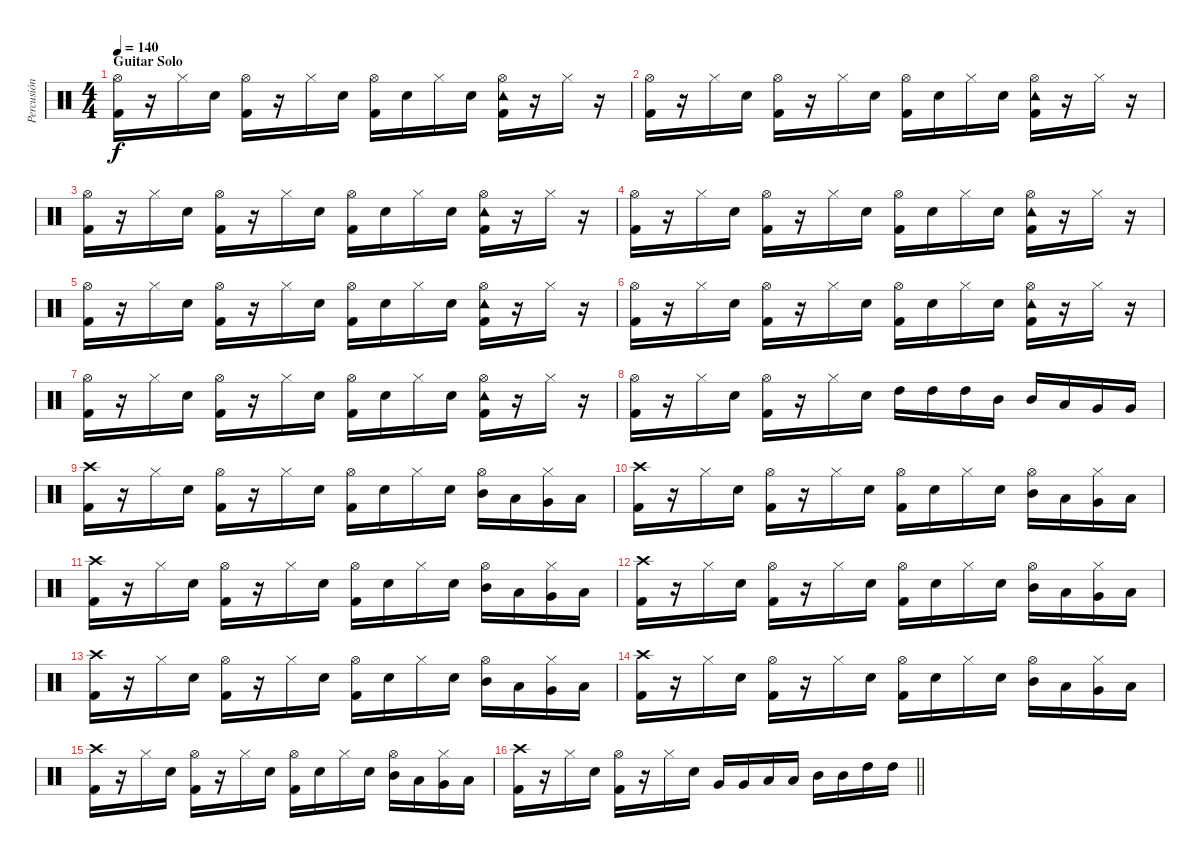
\track ("Percusión" "Percusión") {instrument percussion}
\staff {score}
\articulation defaults
\ts (4 4)
\section ("" "Guitar Solo")
\tempo 140
\clef neutral
\ks c
("Hi-Hat (open)" "Kick (hit) 2").16{dy f} r.16 "Hi-Hat (closed)".16 "Electric Snare (hit)".16 ("Hi-Hat (open)" "Kick (hit) 2").16 r.16 "Hi-Hat (closed)".16 "Electric Snare (hit)".16 ("Hi-Hat (open)" "Kick (hit) 2").16 "Electric Snare (hit)".16 "Hi-Hat (closed)".16 "Electric Snare (hit)".16 ("Hi-Hat (open)" "Tambourine (hit)" "Kick (hit) 2").16 r.16 "Hi-Hat (closed)".16 r.16 |
("Hi-Hat (open)" "Kick (hit) 2").16 r.16 "Hi-Hat (closed)".16 "Electric Snare (hit)".16 ("Hi-Hat (open)" "Kick (hit) 2").16 r.16 "Hi-Hat (closed)".16 "Electric Snare (hit)".16 ("Hi-Hat (open)" "Kick (hit) 2").16 "Electric Snare (hit)".16 "Hi-Hat (closed)".16 "Electric Snare (hit)".16 ("Hi-Hat (open)" "Tambourine (hit)" "Kick (hit) 2").16 r.16 "Hi-Hat (closed)".16 r.16 |
("Hi-Hat (open)" "Kick (hit) 2").16 r.16 "Hi-Hat (closed)".16 "Electric Snare (hit)".16 ("Hi-Hat (open)" "Kick (hit) 2").16 r.16 "Hi-Hat (closed)".16 "Electric Snare (hit)".16 ("Hi-Hat (open)" "Kick (hit) 2").16 "Electric Snare (hit)".16 "Hi-Hat (closed)".16 "Electric Snare (hit)".16 ("Hi-Hat (open)" "Tambourine (hit)" "Kick (hit) 2").16 r.16 "Hi-Hat (closed)".16 r.16 |
("Hi-Hat (open)" "Kick (hit) 2").16 r.16 "Hi-Hat (closed)".16 "Electric Snare (hit)".16 ("Hi-Hat (open)" "Kick (hit) 2").16 r.16 "Hi-Hat (closed)".16 "Electric Snare (hit)".16 ("Hi-Hat (open)" "Kick (hit) 2").16 "Electric Snare (hit)".16 "Hi-Hat (closed)".16 "Electric Snare (hit)".16 ("Hi-Hat (open)" "Tambourine (hit)" "Kick (hit) 2").16 r.16 "Hi-Hat (closed)".16 r.16 |
("Hi-Hat (open)" "Kick (hit) 2").16 r.16 "Hi-Hat (closed)".16 "Electric Snare (hit)".16 ("Hi-Hat (open)" "Kick (hit) 2").16 r.16 "Hi-Hat (closed)".16 "Electric Snare (hit)".16 ("Hi-Hat (open)" "Kick (hit) 2").16 "Electric Snare (hit)".16 "Hi-Hat (closed)".16 "Electric Snare (hit)".16 ("Hi-Hat (open)" "Tambourine (hit)" "Kick (hit) 2").16 r.16 "Hi-Hat (closed)".16 r.16 |
("Hi-Hat (open)" "Kick (hit) 2").16 r.16 "Hi-Hat (closed)".16 "Electric Snare (hit)".16 ("Hi-Hat (open)" "Kick (hit) 2").16 r.16 "Hi-Hat (closed)".16 "Electric Snare (hit)".16 ("Hi-Hat (open)" "Kick (hit) 2").16 "Electric Snare (hit)".16 "Hi-Hat (closed)".16 "Electric Snare (hit)".16 ("Hi-Hat (open)" "Tambourine (hit)" "Kick (hit) 2").16 r.16 "Hi-Hat (closed)".16 r.16 |
("Hi-Hat (open)" "Kick (hit) 2").16 r.16 "Hi-Hat (closed)".16 "Electric Snare (hit)".16 ("Hi-Hat (open)" "Kick (hit) 2").16 r.16 "Hi-Hat (closed)".16 "Electric Snare (hit)".16 ("Hi-Hat (open)" "Kick (hit) 2").16 "Electric Snare (hit)".16 "Hi-Hat (closed)".16 "Electric Snare (hit)".16 ("Hi-Hat (open)" "Tambourine (hit)" "Kick (hit) 2").16 r.16 "Hi-Hat (closed)".16 r.16 |
("Hi-Hat (open)" "Kick (hit) 2").16 r.16 "Hi-Hat (closed)".16 "Electric Snare (hit)".16 ("Hi-Hat (open)" "Kick (hit) 2").16 r.16 "Hi-Hat (closed)".16 "Electric Snare (hit)".16 "High Tom (hit)".16 "High Tom (hit)".16 "High Tom (hit)".16 "Mid Tom (hit)".16 "Mid Tom (hit)".16 "Low Tom (hit)".16 "Very Low Tom (hit)".16 "Very Low Tom (hit)".16 |
("Crash high (hit)" "Kick (hit) 2").16 r.16 "Hi-Hat (closed)".16 "Electric Snare (hit)".16 ("Hi-Hat (open)" "Kick (hit) 2").16 r.16 "Hi-Hat (closed)".16 "Electric Snare (hit)".16 ("Hi-Hat (open)" "Kick (hit) 2").16 "Electric Snare (hit)".16 "Hi-Hat (closed)".16 "Electric Snare (hit)".16 ("Hi-Hat (open)" "Mid Tom (hit)").16 "Low Tom (hit)".16 ("Hi-Hat (closed)" "Very Low Tom (hit)").16 "Low Floor Tom (hit)".16 |
("Crash high (hit)" "Kick (hit) 2").16 r.16 "Hi-Hat (closed)".16 "Electric Snare (hit)".16 ("Hi-Hat (open)" "Kick (hit) 2").16 r.16 "Hi-Hat (closed)".16 "Electric Snare (hit)".16 ("Hi-Hat (open)" "Kick (hit) 2").16 "Electric Snare (hit)".16 "Hi-Hat (closed)".16 "Electric Snare (hit)".16 ("Hi-Hat (open)" "Mid Tom (hit)").16 "Low Tom (hit)".16 ("Hi-Hat (closed)" "Very Low Tom (hit)").16 "Low Floor Tom (hit)".16 |
("Crash high (hit)" "Kick (hit) 2").16 r.16 "Hi-Hat (closed)".16 "Electric Snare (hit)".16 ("Hi-Hat (open)" "Kick (hit) 2").16 r.16 "Hi-Hat (closed)".16 "Electric Snare (hit)".16 ("Hi-Hat (open)" "Kick (hit) 2").16 "Electric Snare (hit)".16 "Hi-Hat (closed)".16 "Electric Snare (hit)".16 ("Hi-Hat (open)" "Mid Tom (hit)").16 "Low Tom (hit)".16 ("Hi-Hat (closed)" "Very Low Tom (hit)").16 "Low Floor Tom (hit)".16 |
("Crash high (hit)" "Kick (hit) 2").16 r.16 "Hi-Hat (closed)".16 "Electric Snare (hit)".16 ("Hi-Hat (open)" "Kick (hit) 2").16 r.16 "Hi-Hat (closed)".16 "Electric Snare (hit)".16 ("Hi-Hat (open)" "Kick (hit) 2").16 "Electric Snare (hit)".16 "Hi-Hat (closed)".16 "Electric Snare (hit)".16 ("Hi-Hat (open)" "Mid Tom (hit)").16 "Low Tom (hit)".16 ("Hi-Hat (closed)" "Very Low Tom (hit)").16 "Low Floor Tom (hit)".16 |
("Crash high (hit)" "Kick (hit) 2").16 r.16 "Hi-Hat (closed)".16 "Electric Snare (hit)".16 ("Hi-Hat (open)" "Kick (hit) 2").16 r.16 "Hi-Hat (closed)".16 "Electric Snare (hit)".16 ("Hi-Hat (open)" "Kick (hit) 2").16 "Electric Snare (hit)".16 "Hi-Hat (closed)".16 "Electric Snare (hit)".16 ("Hi-Hat (open)" "Mid Tom (hit)").16 "Low Tom (hit)".16 ("Hi-Hat (closed)" "Very Low Tom (hit)").16 "Low Floor Tom (hit)".16 |
("Crash high (hit)" "Kick (hit) 2").16 r.16 "Hi-Hat (closed)".16 "Electric Snare (hit)".16 ("Hi-Hat (open)" "Kick (hit) 2").16 r.16 "Hi-Hat (closed)".16 "Electric Snare (hit)".16 ("Hi-Hat (open)" "Kick (hit) 2").16 "Electric Snare (hit)".16 "Hi-Hat (closed)".16 "Electric Snare (hit)".16 ("Hi-Hat (open)" "Mid Tom (hit)").16 "Low Tom (hit)".16 ("Hi-Hat (closed)" "Very Low Tom (hit)").16 "Low Floor Tom (hit)".16 |
("Crash high (hit)" "Kick (hit) 2").16 r.16 "Hi-Hat (closed)".16 "Electric Snare (hit)".16 ("Hi-Hat (open)" "Kick (hit) 2").16 r.16 "Hi-Hat (closed)".16 "Electric Snare (hit)".16 ("Hi-Hat (open)" "Kick (hit) 2").16 "Electric Snare (hit)".16 "Hi-Hat (closed)".16 "Electric Snare (hit)".16 ("Hi-Hat (open)" "Mid Tom (hit)").16 "Low Tom (hit)".16 ("Hi-Hat (closed)" "Very Low Tom (hit)").16 "Low Floor Tom (hit)".16 |
\barLineRight lightlight
("Crash high (hit)" "Kick (hit) 2").16 r.16 "Hi-Hat (closed)".16 "Electric Snare (hit)".16 ("Hi-Hat (open)" "Kick (hit) 2").16 r.16 "Hi-Hat (closed)".16 "Electric Snare (hit)".16 "Very Low Tom (hit)".16 "Very Low Tom (hit)".16 "Low Tom (hit)".16 "Low Tom (hit)".16 "Mid Tom (hit)".16 "Mid Tom (hit)".16 "High Tom (hit)".16 "High Tom (hit)".16
